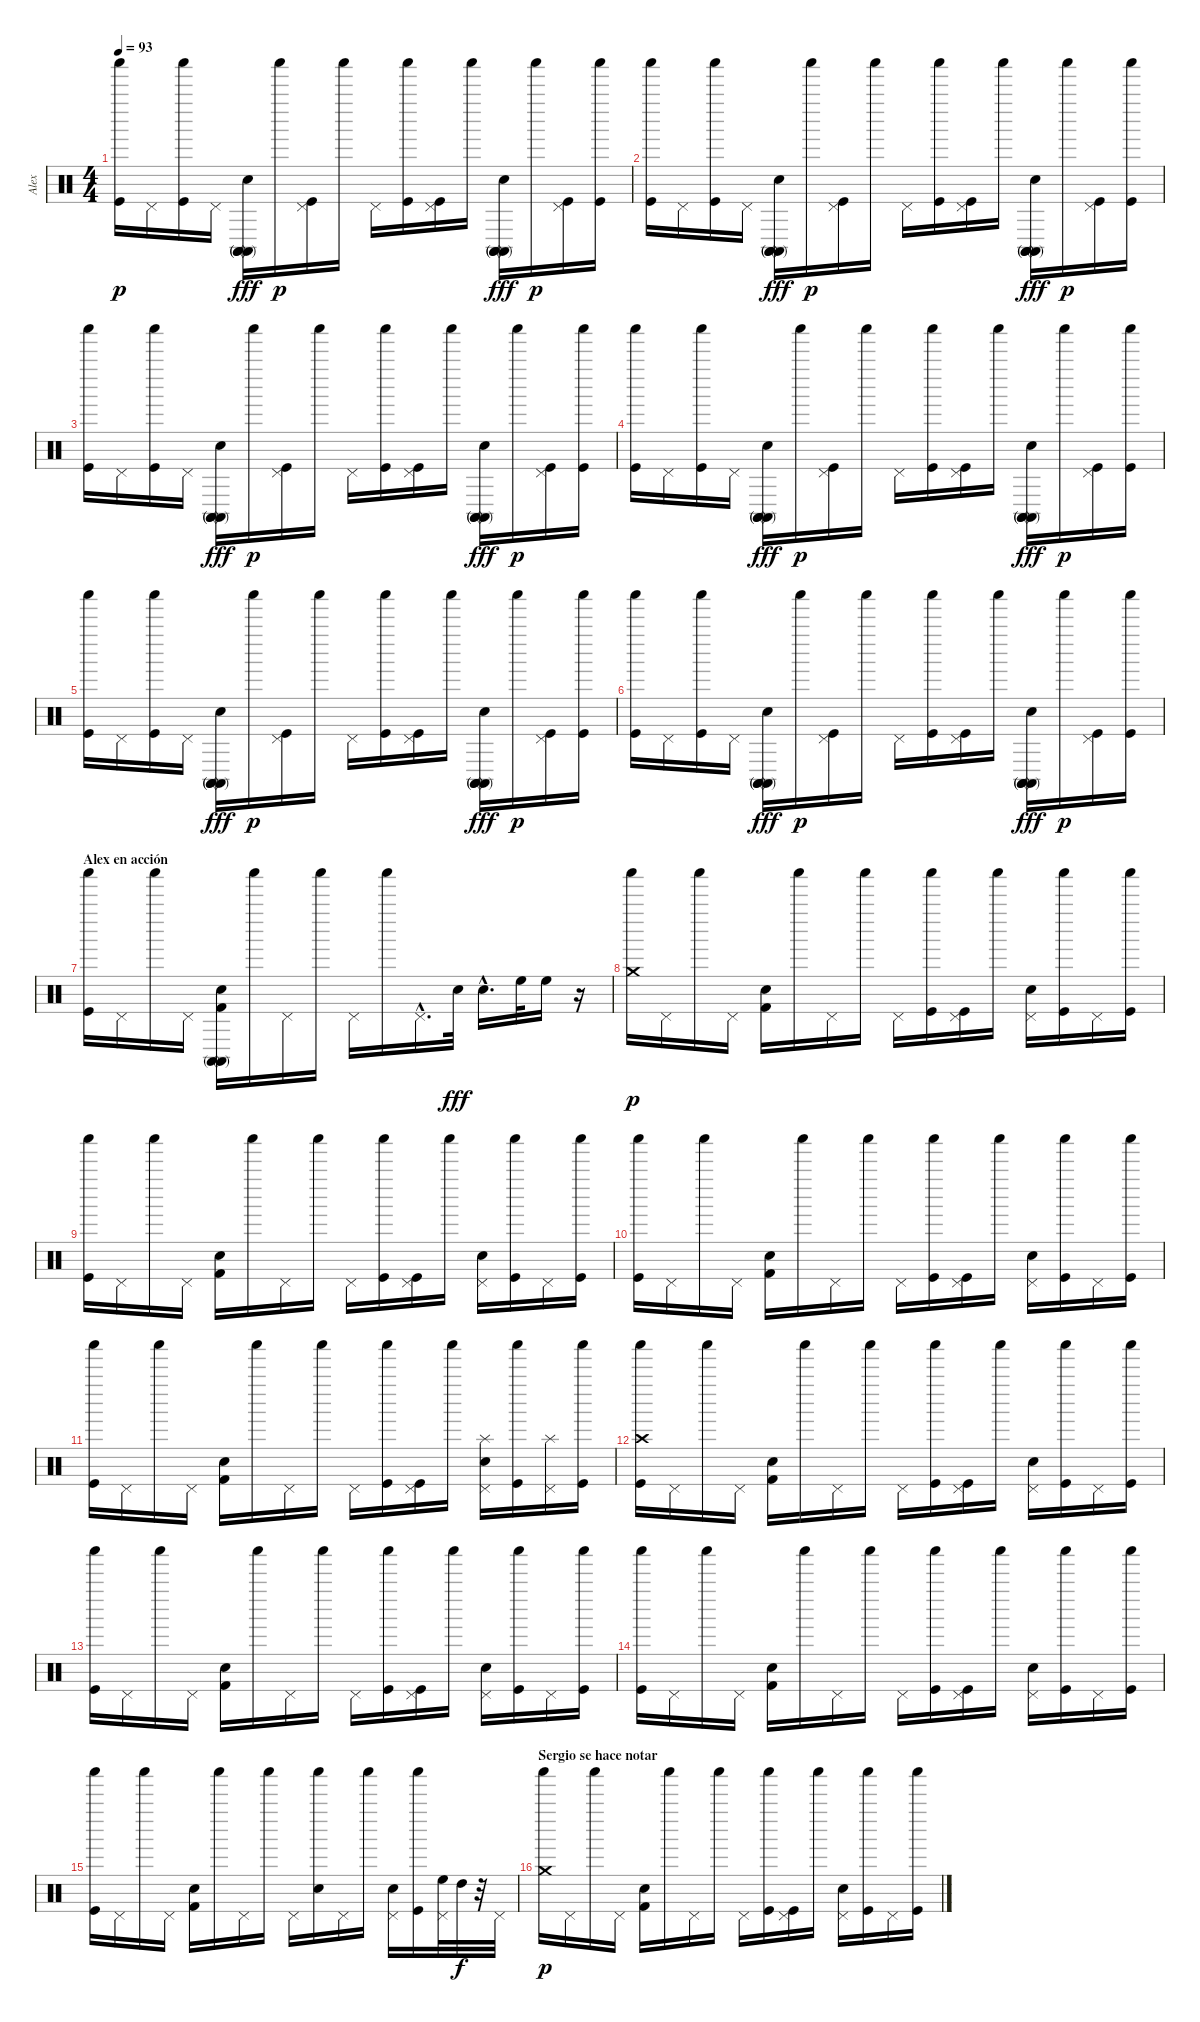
\track ("Alex" "Alex") {instrument percussion}
\staff {score}
\articulation defaults
\ts (4 4)
\tempo 93
\clef neutral
\ks c
("Kick (hit)" "Shaker (hit)").16{dy p volume 13} "Pedal Hi-Hat (hit)".16 ("Kick (hit)" "Shaker (hit)").16 "Pedal Hi-Hat (hit)".16 ("Electric Snare (hit)" "Conga high (mute)" "Conga high (mute)" "Conga high (mute)").16{dy fff} "Shaker (hit)".16{dy p} ("Kick (hit)" "Pedal Hi-Hat (hit)").16 "Shaker (hit)".16 "Pedal Hi-Hat (hit)".16 ("Kick (hit)" "Shaker (hit)").16 ("Kick (hit)" "Pedal Hi-Hat (hit)").16 "Shaker (hit)".16 ("Electric Snare (hit)" "Conga high (mute)" "Conga high (mute)" "Conga high (mute)").16{dy fff} "Shaker (hit)".16{dy p} ("Kick (hit)" "Pedal Hi-Hat (hit)").16 ("Kick (hit)" "Shaker (hit)").16 |
("Kick (hit)" "Shaker (hit)").16{volume 13} "Pedal Hi-Hat (hit)".16 ("Kick (hit)" "Shaker (hit)").16 "Pedal Hi-Hat (hit)".16 ("Electric Snare (hit)" "Conga high (mute)" "Conga high (mute)" "Conga high (mute)").16{dy fff} "Shaker (hit)".16{dy p} ("Kick (hit)" "Pedal Hi-Hat (hit)").16 "Shaker (hit)".16 "Pedal Hi-Hat (hit)".16 ("Kick (hit)" "Shaker (hit)").16 ("Kick (hit)" "Pedal Hi-Hat (hit)").16 "Shaker (hit)".16 ("Electric Snare (hit)" "Conga high (mute)" "Conga high (mute)" "Conga high (mute)").16{dy fff} "Shaker (hit)".16{dy p} ("Kick (hit)" "Pedal Hi-Hat (hit)").16 ("Kick (hit)" "Shaker (hit)").16 |
("Kick (hit)" "Shaker (hit)").16{volume 13} "Pedal Hi-Hat (hit)".16 ("Kick (hit)" "Shaker (hit)").16 "Pedal Hi-Hat (hit)".16 ("Electric Snare (hit)" "Conga high (mute)" "Conga high (mute)" "Conga high (mute)").16{dy fff} "Shaker (hit)".16{dy p} ("Kick (hit)" "Pedal Hi-Hat (hit)").16 "Shaker (hit)".16 "Pedal Hi-Hat (hit)".16 ("Kick (hit)" "Shaker (hit)").16 ("Kick (hit)" "Pedal Hi-Hat (hit)").16 "Shaker (hit)".16 ("Electric Snare (hit)" "Conga high (mute)" "Conga high (mute)" "Conga high (mute)").16{dy fff} "Shaker (hit)".16{dy p} ("Kick (hit)" "Pedal Hi-Hat (hit)").16 ("Kick (hit)" "Shaker (hit)").16 |
("Kick (hit)" "Shaker (hit)").16{volume 13} "Pedal Hi-Hat (hit)".16 ("Kick (hit)" "Shaker (hit)").16 "Pedal Hi-Hat (hit)".16 ("Electric Snare (hit)" "Conga high (mute)" "Conga high (mute)" "Conga high (mute)").16{dy fff} "Shaker (hit)".16{dy p} ("Kick (hit)" "Pedal Hi-Hat (hit)").16 "Shaker (hit)".16 "Pedal Hi-Hat (hit)".16 ("Kick (hit)" "Shaker (hit)").16 ("Kick (hit)" "Pedal Hi-Hat (hit)").16 "Shaker (hit)".16 ("Electric Snare (hit)" "Conga high (mute)" "Conga high (mute)" "Conga high (mute)").16{dy fff} "Shaker (hit)".16{dy p} ("Kick (hit)" "Pedal Hi-Hat (hit)").16 ("Kick (hit)" "Shaker (hit)").16 |
("Kick (hit)" "Shaker (hit)").16{volume 13} "Pedal Hi-Hat (hit)".16 ("Kick (hit)" "Shaker (hit)").16 "Pedal Hi-Hat (hit)".16 ("Electric Snare (hit)" "Conga high (mute)" "Conga high (mute)" "Conga high (mute)").16{dy fff} "Shaker (hit)".16{dy p} ("Kick (hit)" "Pedal Hi-Hat (hit)").16 "Shaker (hit)".16 "Pedal Hi-Hat (hit)".16 ("Kick (hit)" "Shaker (hit)").16 ("Kick (hit)" "Pedal Hi-Hat (hit)").16 "Shaker (hit)".16 ("Electric Snare (hit)" "Conga high (mute)" "Conga high (mute)" "Conga high (mute)").16{dy fff} "Shaker (hit)".16{dy p} ("Kick (hit)" "Pedal Hi-Hat (hit)").16 ("Kick (hit)" "Shaker (hit)").16 |
("Kick (hit)" "Shaker (hit)").16{volume 13} "Pedal Hi-Hat (hit)".16 ("Kick (hit)" "Shaker (hit)").16 "Pedal Hi-Hat (hit)".16 ("Electric Snare (hit)" "Conga high (mute)" "Conga high (mute)" "Conga high (mute)").16{dy fff} "Shaker (hit)".16{dy p} ("Kick (hit)" "Pedal Hi-Hat (hit)").16 "Shaker (hit)".16 "Pedal Hi-Hat (hit)".16 ("Kick (hit)" "Shaker (hit)").16 ("Kick (hit)" "Pedal Hi-Hat (hit)").16 "Shaker (hit)".16 ("Electric Snare (hit)" "Conga high (mute)" "Conga high (mute)" "Conga high (mute)").16{dy fff} "Shaker (hit)".16{dy p} ("Kick (hit)" "Pedal Hi-Hat (hit)").16 ("Kick (hit)" "Shaker (hit)").16 |
\section ("" "Alex en acción")
("Kick (hit)" "Shaker (hit)").16 "Pedal Hi-Hat (hit)".16 "Shaker (hit)".16 "Pedal Hi-Hat (hit)".16 ("Electric Snare (hit)" "Kick (hit) 2" "Conga high (mute)" "Conga high (mute)").16 "Shaker (hit)".16 "Pedal Hi-Hat (hit)".16 "Shaker (hit)".16 "Pedal Hi-Hat (hit)".16 "Shaker (hit)".16 "Pedal Hi-Hat (hit)"{hac}.16{d} "Electric Snare (hit)".32{dy fff volume 16} "Electric Snare (hit)"{hac}.16{d} "High Floor Tom (hit)".32 "High Floor Tom (hit)".16 r.16 |
("Crash medium (hit)" "Shaker (hit)").16{dy p} "Pedal Hi-Hat (hit)".16 "Shaker (hit)".16 "Pedal Hi-Hat (hit)".16 ("Electric Snare (hit)" "Kick (hit) 2").16 "Shaker (hit)".16 "Pedal Hi-Hat (hit)".16 "Shaker (hit)".16 "Pedal Hi-Hat (hit)".16 ("Kick (hit)" "Shaker (hit)").16 ("Kick (hit)" "Pedal Hi-Hat (hit)").16 "Shaker (hit)".16 ("Electric Snare (hit)" "Pedal Hi-Hat (hit)").16 ("Kick (hit)" "Shaker (hit)").16 "Pedal Hi-Hat (hit)".16 ("Kick (hit)" "Shaker (hit)").16 |
("Kick (hit)" "Shaker (hit)").16 "Pedal Hi-Hat (hit)".16 "Shaker (hit)".16 "Pedal Hi-Hat (hit)".16 ("Electric Snare (hit)" "Kick (hit) 2").16 "Shaker (hit)".16 "Pedal Hi-Hat (hit)".16 "Shaker (hit)".16 "Pedal Hi-Hat (hit)".16 ("Kick (hit)" "Shaker (hit)").16 ("Kick (hit)" "Pedal Hi-Hat (hit)").16 "Shaker (hit)".16 ("Electric Snare (hit)" "Pedal Hi-Hat (hit)").16 ("Kick (hit)" "Shaker (hit)").16 "Pedal Hi-Hat (hit)".16 ("Kick (hit)" "Shaker (hit)").16 |
("Kick (hit)" "Shaker (hit)").16 "Pedal Hi-Hat (hit)".16 "Shaker (hit)".16 "Pedal Hi-Hat (hit)".16 ("Electric Snare (hit)" "Kick (hit) 2").16 "Shaker (hit)".16 "Pedal Hi-Hat (hit)".16 "Shaker (hit)".16 "Pedal Hi-Hat (hit)".16 ("Kick (hit)" "Shaker (hit)").16 ("Kick (hit)" "Pedal Hi-Hat (hit)").16 "Shaker (hit)".16 ("Electric Snare (hit)" "Pedal Hi-Hat (hit)").16 ("Kick (hit)" "Shaker (hit)").16 "Pedal Hi-Hat (hit)".16 ("Kick (hit)" "Shaker (hit)").16 |
("Kick (hit)" "Shaker (hit)").16 "Pedal Hi-Hat (hit)".16 "Shaker (hit)".16 "Pedal Hi-Hat (hit)".16 ("Electric Snare (hit)" "Kick (hit) 2").16 "Shaker (hit)".16 "Pedal Hi-Hat (hit)".16 "Shaker (hit)".16 "Pedal Hi-Hat (hit)".16 ("Kick (hit)" "Shaker (hit)").16 ("Kick (hit)" "Pedal Hi-Hat (hit)").16 "Shaker (hit)".16 ("Electric Snare (hit)" "Pedal Hi-Hat (hit)" "Splash (hit)").16 ("Kick (hit)" "Shaker (hit)").16 ("Pedal Hi-Hat (hit)" "Splash (hit)").16 ("Kick (hit)" "Shaker (hit)").16 |
("Kick (hit)" "Shaker (hit)" "Crash high (hit)").16 "Pedal Hi-Hat (hit)".16 "Shaker (hit)".16 "Pedal Hi-Hat (hit)".16 ("Electric Snare (hit)" "Kick (hit) 2").16 "Shaker (hit)".16 "Pedal Hi-Hat (hit)".16 "Shaker (hit)".16 "Pedal Hi-Hat (hit)".16 ("Kick (hit)" "Shaker (hit)").16 ("Kick (hit)" "Pedal Hi-Hat (hit)").16 "Shaker (hit)".16 ("Electric Snare (hit)" "Pedal Hi-Hat (hit)").16 ("Kick (hit)" "Shaker (hit)").16 "Pedal Hi-Hat (hit)".16 ("Kick (hit)" "Shaker (hit)").16 |
("Kick (hit)" "Shaker (hit)").16 "Pedal Hi-Hat (hit)".16 "Shaker (hit)".16 "Pedal Hi-Hat (hit)".16 ("Electric Snare (hit)" "Kick (hit) 2").16 "Shaker (hit)".16 "Pedal Hi-Hat (hit)".16 "Shaker (hit)".16 "Pedal Hi-Hat (hit)".16 ("Kick (hit)" "Shaker (hit)").16 ("Kick (hit)" "Pedal Hi-Hat (hit)").16 "Shaker (hit)".16 ("Electric Snare (hit)" "Pedal Hi-Hat (hit)").16 ("Kick (hit)" "Shaker (hit)").16 "Pedal Hi-Hat (hit)".16 ("Kick (hit)" "Shaker (hit)").16 |
("Kick (hit)" "Shaker (hit)").16 "Pedal Hi-Hat (hit)".16 "Shaker (hit)".16 "Pedal Hi-Hat (hit)".16 ("Electric Snare (hit)" "Kick (hit) 2").16 "Shaker (hit)".16 "Pedal Hi-Hat (hit)".16 "Shaker (hit)".16 "Pedal Hi-Hat (hit)".16 ("Kick (hit)" "Shaker (hit)").16 ("Kick (hit)" "Pedal Hi-Hat (hit)").16 "Shaker (hit)".16 ("Electric Snare (hit)" "Pedal Hi-Hat (hit)").16 ("Kick (hit)" "Shaker (hit)").16 "Pedal Hi-Hat (hit)".16 ("Kick (hit)" "Shaker (hit)").16 |
("Kick (hit)" "Shaker (hit)").16 "Pedal Hi-Hat (hit)".16 "Shaker (hit)".16 "Pedal Hi-Hat (hit)".16 ("Electric Snare (hit)" "Kick (hit) 2").16 "Shaker (hit)".16 "Pedal Hi-Hat (hit)".16 "Shaker (hit)".16 "Pedal Hi-Hat (hit)".16 ("Electric Snare (hit)" "Shaker (hit)").16 "Pedal Hi-Hat (hit)".16 "Shaker (hit)".16 ("Electric Snare (hit)" "Pedal Hi-Hat (hit)").16 ("Kick (hit)" "Shaker (hit)").16 ("High Floor Tom (hit)" "Pedal Hi-Hat (hit)").32 "High Tom (hit)".32{dy f} r.32 "Pedal Hi-Hat (hit)".32 |
\section ("" "Sergio se hace notar")
("Crash medium (hit)" "Shaker (hit)").16{dy p} "Pedal Hi-Hat (hit)".16 "Shaker (hit)".16 "Pedal Hi-Hat (hit)".16 ("Electric Snare (hit)" "Kick (hit) 2").16 "Shaker (hit)".16 "Pedal Hi-Hat (hit)".16 "Shaker (hit)".16 "Pedal Hi-Hat (hit)".16 ("Kick (hit)" "Shaker (hit)").16 ("Kick (hit)" "Pedal Hi-Hat (hit)").16 "Shaker (hit)".16 ("Electric Snare (hit)" "Pedal Hi-Hat (hit)").16 ("Kick (hit)" "Shaker (hit)").16 "Pedal Hi-Hat (hit)".16 ("Kick (hit)" "Shaker (hit)").16
